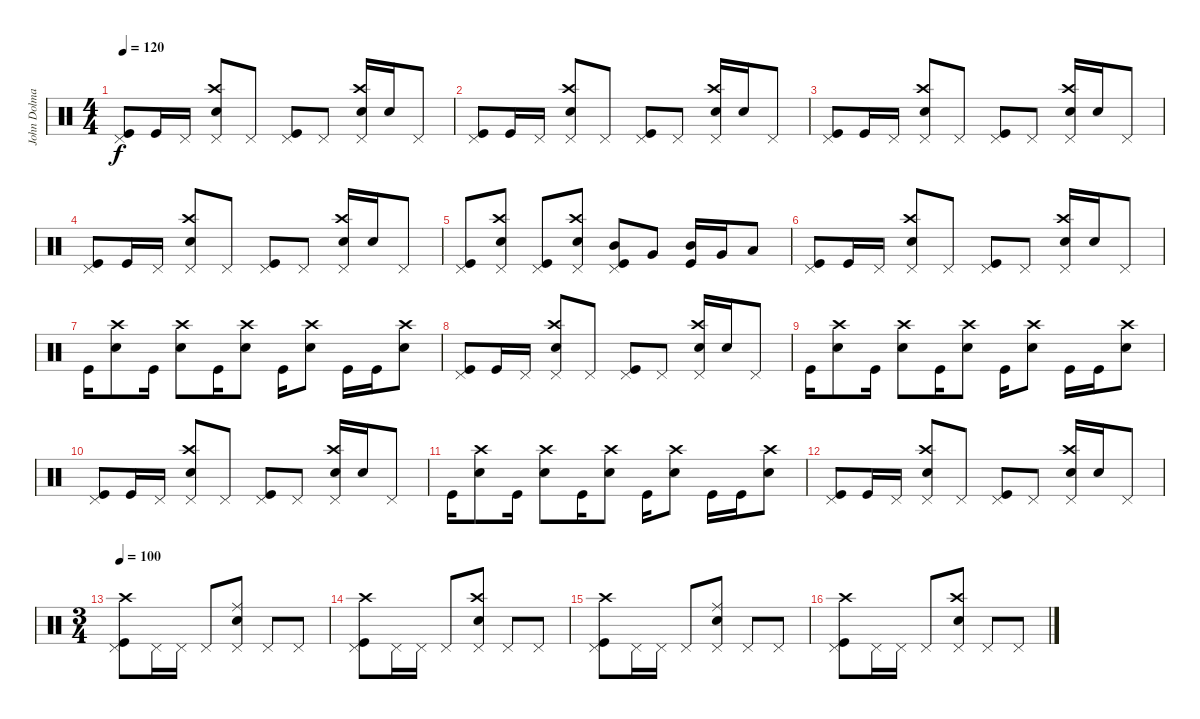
\track ("John Dolmayan" "John Dolma") {instrument percussion}
\staff {score}
\articulation defaults
\ts (4 4)
\tempo 120
\clef neutral
\ks c
("Pedal Hi-Hat (hit)" "Kick (hit)").8{dy f} "Kick (hit)".16 "Pedal Hi-Hat (hit)".16 ("Crash high (hit)" "Pedal Hi-Hat (hit)" "Electric Snare (hit)").8 "Pedal Hi-Hat (hit)".8 ("Pedal Hi-Hat (hit)" "Kick (hit)").8 "Pedal Hi-Hat (hit)".8 ("Crash high (hit)" "Pedal Hi-Hat (hit)" "Electric Snare (hit)").16 "Electric Snare (hit)".16 "Pedal Hi-Hat (hit)".8 |
("Pedal Hi-Hat (hit)" "Kick (hit)").8 "Kick (hit)".16 "Pedal Hi-Hat (hit)".16 ("Crash high (hit)" "Pedal Hi-Hat (hit)" "Electric Snare (hit)").8 "Pedal Hi-Hat (hit)".8 ("Pedal Hi-Hat (hit)" "Kick (hit)").8 "Pedal Hi-Hat (hit)".8 ("Crash high (hit)" "Pedal Hi-Hat (hit)" "Electric Snare (hit)").16 "Electric Snare (hit)".16 "Pedal Hi-Hat (hit)".8 |
("Pedal Hi-Hat (hit)" "Kick (hit)").8 "Kick (hit)".16 "Pedal Hi-Hat (hit)".16 ("Crash high (hit)" "Pedal Hi-Hat (hit)" "Electric Snare (hit)").8 "Pedal Hi-Hat (hit)".8 ("Pedal Hi-Hat (hit)" "Kick (hit)").8 "Pedal Hi-Hat (hit)".8 ("Crash high (hit)" "Pedal Hi-Hat (hit)" "Electric Snare (hit)").16 "Electric Snare (hit)".16 "Pedal Hi-Hat (hit)".8 |
("Pedal Hi-Hat (hit)" "Kick (hit)").8 "Kick (hit)".16 "Pedal Hi-Hat (hit)".16 ("Crash high (hit)" "Pedal Hi-Hat (hit)" "Electric Snare (hit)").8 "Pedal Hi-Hat (hit)".8 ("Pedal Hi-Hat (hit)" "Kick (hit)").8 "Pedal Hi-Hat (hit)".8 ("Crash high (hit)" "Pedal Hi-Hat (hit)" "Electric Snare (hit)").16 "Electric Snare (hit)".16 "Pedal Hi-Hat (hit)".8 |
("Pedal Hi-Hat (hit)" "Kick (hit)").8 ("Crash high (hit)" "Pedal Hi-Hat (hit)" "Electric Snare (hit)").8 ("Pedal Hi-Hat (hit)" "Kick (hit)").8 ("Crash high (hit)" "Pedal Hi-Hat (hit)" "Electric Snare (hit)").8 ("Mid Tom (hit)" "Pedal Hi-Hat (hit)" "Kick (hit)").8 "Very Low Tom (hit)".8 ("Mid Tom (hit)" "Kick (hit)").16 "Very Low Tom (hit)".16 "Low Floor Tom (hit)".8 |
("Pedal Hi-Hat (hit)" "Kick (hit)").8 "Kick (hit)".16 "Pedal Hi-Hat (hit)".16 ("Crash high (hit)" "Pedal Hi-Hat (hit)" "Electric Snare (hit)").8 "Pedal Hi-Hat (hit)".8 ("Pedal Hi-Hat (hit)" "Kick (hit)").8 "Pedal Hi-Hat (hit)".8 ("Crash high (hit)" "Pedal Hi-Hat (hit)" "Electric Snare (hit)").16 "Electric Snare (hit)".16 "Pedal Hi-Hat (hit)".8 |
"Kick (hit)".16 ("Crash high (hit)" "Electric Snare (hit)").8 "Kick (hit)".16 ("Crash high (hit)" "Electric Snare (hit)").8 "Kick (hit)".16 ("Crash high (hit)" "Electric Snare (hit)").8 "Kick (hit)".16 ("Crash high (hit)" "Electric Snare (hit)").8 "Kick (hit)".16 "Kick (hit)".16 ("Crash high (hit)" "Electric Snare (hit)").8 |
("Pedal Hi-Hat (hit)" "Kick (hit)").8 "Kick (hit)".16 "Pedal Hi-Hat (hit)".16 ("Crash high (hit)" "Pedal Hi-Hat (hit)" "Electric Snare (hit)").8 "Pedal Hi-Hat (hit)".8 ("Pedal Hi-Hat (hit)" "Kick (hit)").8 "Pedal Hi-Hat (hit)".8 ("Crash high (hit)" "Pedal Hi-Hat (hit)" "Electric Snare (hit)").16 "Electric Snare (hit)".16 "Pedal Hi-Hat (hit)".8 |
"Kick (hit)".16 ("Crash high (hit)" "Electric Snare (hit)").8 "Kick (hit)".16 ("Crash high (hit)" "Electric Snare (hit)").8 "Kick (hit)".16 ("Crash high (hit)" "Electric Snare (hit)").8 "Kick (hit)".16 ("Crash high (hit)" "Electric Snare (hit)").8 "Kick (hit)".16 "Kick (hit)".16 ("Crash high (hit)" "Electric Snare (hit)").8 |
("Pedal Hi-Hat (hit)" "Kick (hit)").8 "Kick (hit)".16 "Pedal Hi-Hat (hit)".16 ("Crash high (hit)" "Pedal Hi-Hat (hit)" "Electric Snare (hit)").8 "Pedal Hi-Hat (hit)".8 ("Pedal Hi-Hat (hit)" "Kick (hit)").8 "Pedal Hi-Hat (hit)".8 ("Crash high (hit)" "Pedal Hi-Hat (hit)" "Electric Snare (hit)").16 "Electric Snare (hit)".16 "Pedal Hi-Hat (hit)".8 |
"Kick (hit)".16 ("Crash high (hit)" "Electric Snare (hit)").8 "Kick (hit)".16 ("Crash high (hit)" "Electric Snare (hit)").8 "Kick (hit)".16 ("Crash high (hit)" "Electric Snare (hit)").8 "Kick (hit)".16 ("Crash high (hit)" "Electric Snare (hit)").8 "Kick (hit)".16 "Kick (hit)".16 ("Crash high (hit)" "Electric Snare (hit)").8 |
("Pedal Hi-Hat (hit)" "Kick (hit)").8 "Kick (hit)".16 "Pedal Hi-Hat (hit)".16 ("Crash high (hit)" "Pedal Hi-Hat (hit)" "Electric Snare (hit)").8 "Pedal Hi-Hat (hit)".8 ("Pedal Hi-Hat (hit)" "Kick (hit)").8 "Pedal Hi-Hat (hit)".8 ("Crash high (hit)" "Pedal Hi-Hat (hit)" "Electric Snare (hit)").16 "Electric Snare (hit)".16 "Pedal Hi-Hat (hit)".8 |
\ts (3 4)
\tempo 100
("Pedal Hi-Hat (hit)" "Crash high (hit)" "Kick (hit)").8 "Pedal Hi-Hat (hit)".16 "Pedal Hi-Hat (hit)".16 "Pedal Hi-Hat (hit)".8 ("Pedal Hi-Hat (hit)" "Electric Snare (hit)" "Ride (middle)").8 "Pedal Hi-Hat (hit)".8 "Pedal Hi-Hat (hit)".8 |
("Pedal Hi-Hat (hit)" "Crash high (hit)" "Kick (hit)").8 "Pedal Hi-Hat (hit)".16 "Pedal Hi-Hat (hit)".16 "Pedal Hi-Hat (hit)".8 ("Pedal Hi-Hat (hit)" "Electric Snare (hit)" "Crash high (hit)").8 "Pedal Hi-Hat (hit)".8 "Pedal Hi-Hat (hit)".8 |
("Pedal Hi-Hat (hit)" "Crash high (hit)" "Kick (hit)").8 "Pedal Hi-Hat (hit)".16 "Pedal Hi-Hat (hit)".16 "Pedal Hi-Hat (hit)".8 ("Pedal Hi-Hat (hit)" "Electric Snare (hit)" "Ride (middle)").8 "Pedal Hi-Hat (hit)".8 "Pedal Hi-Hat (hit)".8 |
("Pedal Hi-Hat (hit)" "Crash high (hit)" "Kick (hit)").8 "Pedal Hi-Hat (hit)".16 "Pedal Hi-Hat (hit)".16 "Pedal Hi-Hat (hit)".8 ("Pedal Hi-Hat (hit)" "Electric Snare (hit)" "Crash high (hit)").8 "Pedal Hi-Hat (hit)".8 "Pedal Hi-Hat (hit)".8
